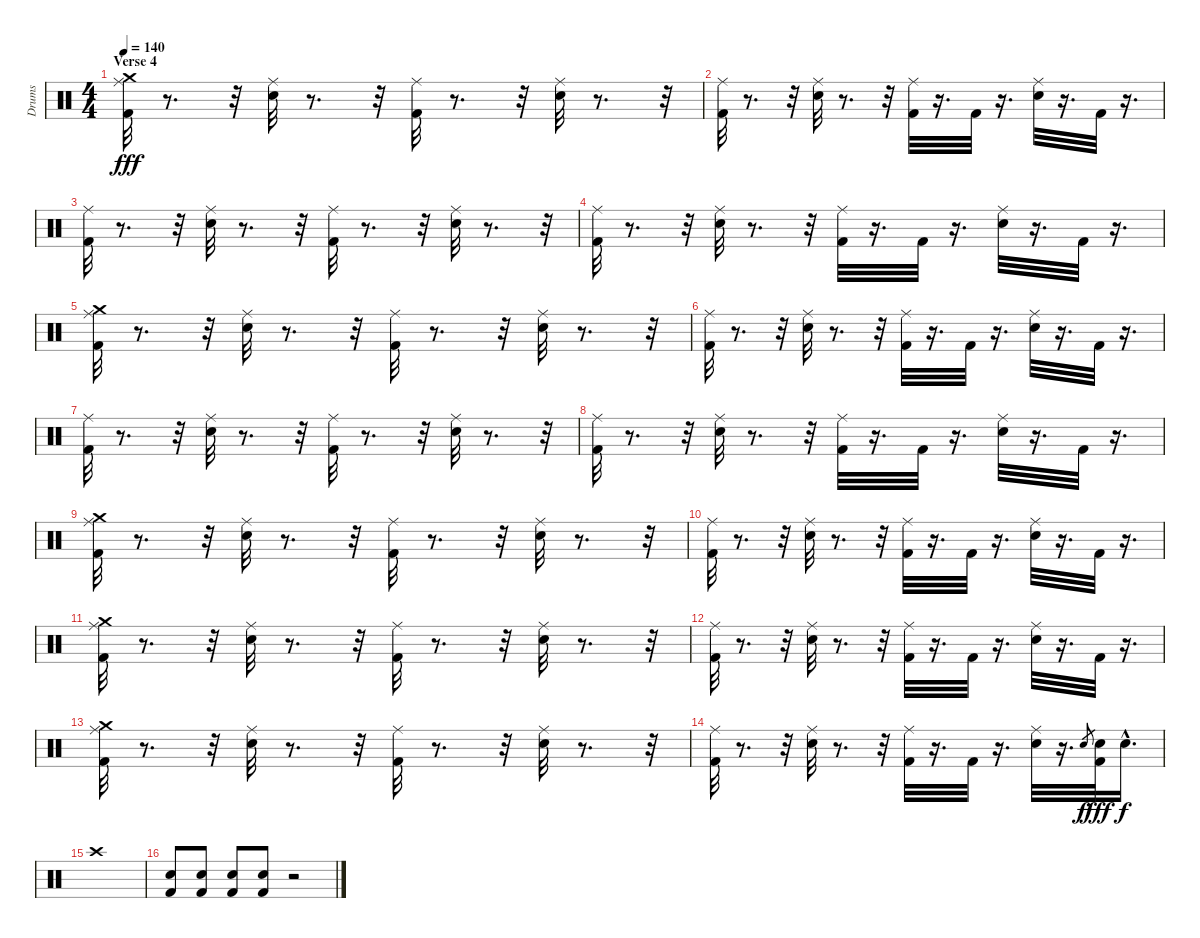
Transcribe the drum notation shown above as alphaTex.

\track ("Drums" "Drums") {instrument percussion}
\staff {score}
\articulation defaults
\ts (4 4)
\section ("" "Verse 4")
\tempo 140
\clef neutral
\ks c
("Crash medium (hit)" "Kick (hit) 2" "Ride (middle)").32{dy fff} r.8{d} r.32 ("Ride (middle)" "Snare (hit) 2").32 r.8{d} r.32 ("Kick (hit) 2" "Ride (middle)").32 r.8{d} r.32 ("Ride (middle)" "Snare (hit) 2").32 r.8{d} r.32 |
("Kick (hit) 2" "Ride (middle)").32 r.8{d} r.32 ("Ride (middle)" "Snare (hit) 2").32 r.8{d} r.32 ("Kick (hit) 2" "Ride (middle)").32 r.16{d} "Kick (hit) 2".32 r.16{d} ("Ride (middle)" "Snare (hit) 2").32 r.16{d} "Kick (hit) 2".32 r.16{d} |
("Kick (hit) 2" "Ride (middle)").32 r.8{d} r.32 ("Ride (middle)" "Snare (hit) 2").32 r.8{d} r.32 ("Kick (hit) 2" "Ride (middle)").32 r.8{d} r.32 ("Ride (middle)" "Snare (hit) 2").32 r.8{d} r.32 |
("Kick (hit) 2" "Ride (middle)").32 r.8{d} r.32 ("Ride (middle)" "Snare (hit) 2").32 r.8{d} r.32 ("Kick (hit) 2" "Ride (middle)").32 r.16{d} "Kick (hit) 2".32 r.16{d} ("Ride (middle)" "Snare (hit) 2").32 r.16{d} "Kick (hit) 2".32 r.16{d} |
("Crash medium (hit)" "Kick (hit) 2" "Ride (middle)").32 r.8{d} r.32 ("Ride (middle)" "Snare (hit) 2").32 r.8{d} r.32 ("Kick (hit) 2" "Ride (middle)").32 r.8{d} r.32 ("Ride (middle)" "Snare (hit) 2").32 r.8{d} r.32 |
("Kick (hit) 2" "Ride (middle)").32 r.8{d} r.32 ("Ride (middle)" "Snare (hit) 2").32 r.8{d} r.32 ("Kick (hit) 2" "Ride (middle)").32 r.16{d} "Kick (hit) 2".32 r.16{d} ("Ride (middle)" "Snare (hit) 2").32 r.16{d} "Kick (hit) 2".32 r.16{d} |
("Kick (hit) 2" "Ride (middle)").32 r.8{d} r.32 ("Ride (middle)" "Snare (hit) 2").32 r.8{d} r.32 ("Kick (hit) 2" "Ride (middle)").32 r.8{d} r.32 ("Ride (middle)" "Snare (hit) 2").32 r.8{d} r.32 |
("Kick (hit) 2" "Ride (middle)").32 r.8{d} r.32 ("Ride (middle)" "Snare (hit) 2").32 r.8{d} r.32 ("Kick (hit) 2" "Ride (middle)").32 r.16{d} "Kick (hit) 2".32 r.16{d} ("Ride (middle)" "Snare (hit) 2").32 r.16{d} "Kick (hit) 2".32 r.16{d} |
("Crash medium (hit)" "Kick (hit) 2" "Ride (middle)").32 r.8{d} r.32 ("Ride (middle)" "Snare (hit) 2").32 r.8{d} r.32 ("Kick (hit) 2" "Ride (middle)").32 r.8{d} r.32 ("Ride (middle)" "Snare (hit) 2").32 r.8{d} r.32 |
("Kick (hit) 2" "Ride (middle)").32 r.8{d} r.32 ("Ride (middle)" "Snare (hit) 2").32 r.8{d} r.32 ("Kick (hit) 2" "Ride (middle)").32 r.16{d} "Kick (hit) 2".32 r.16{d} ("Ride (middle)" "Snare (hit) 2").32 r.16{d} "Kick (hit) 2".32 r.16{d} |
("Crash medium (hit)" "Kick (hit) 2" "Ride (middle)").32 r.8{d} r.32 ("Ride (middle)" "Snare (hit) 2").32 r.8{d} r.32 ("Kick (hit) 2" "Ride (middle)").32 r.8{d} r.32 ("Ride (middle)" "Snare (hit) 2").32 r.8{d} r.32 |
("Kick (hit) 2" "Ride (middle)").32 r.8{d} r.32 ("Ride (middle)" "Snare (hit) 2").32 r.8{d} r.32 ("Kick (hit) 2" "Ride (middle)").32 r.16{d} "Kick (hit) 2".32 r.16{d} ("Ride (middle)" "Snare (hit) 2").32 r.16{d} "Kick (hit) 2".32 r.16{d} |
("Crash medium (hit)" "Kick (hit) 2" "Ride (middle)").32 r.8{d} r.32 ("Ride (middle)" "Snare (hit) 2").32 r.8{d} r.32 ("Kick (hit) 2" "Ride (middle)").32 r.8{d} r.32 ("Ride (middle)" "Snare (hit) 2").32 r.8{d} r.32 |
("Kick (hit) 2" "Ride (middle)").32 r.8{d} r.32 ("Ride (middle)" "Snare (hit) 2").32 r.8{d} r.32 ("Kick (hit) 2" "Ride (middle)").32 r.16{d} "Kick (hit) 2".32 r.16{d} ("Ride (middle)" "Snare (hit) 2").32 r.16{d} "Snare (hit) 2".8{gr dy f} ("Kick (hit) 2" "Snare (hit) 2").32{dy fff} "Snare (hit) 2"{hac}.16{d dy f} |
"Crash high (hit)".1 |
("Snare (hit) 2" "Kick (hit) 2").8 ("Snare (hit) 2" "Kick (hit) 2").8 ("Snare (hit) 2" "Kick (hit) 2").8 ("Snare (hit) 2" "Kick (hit) 2").8 r.2
